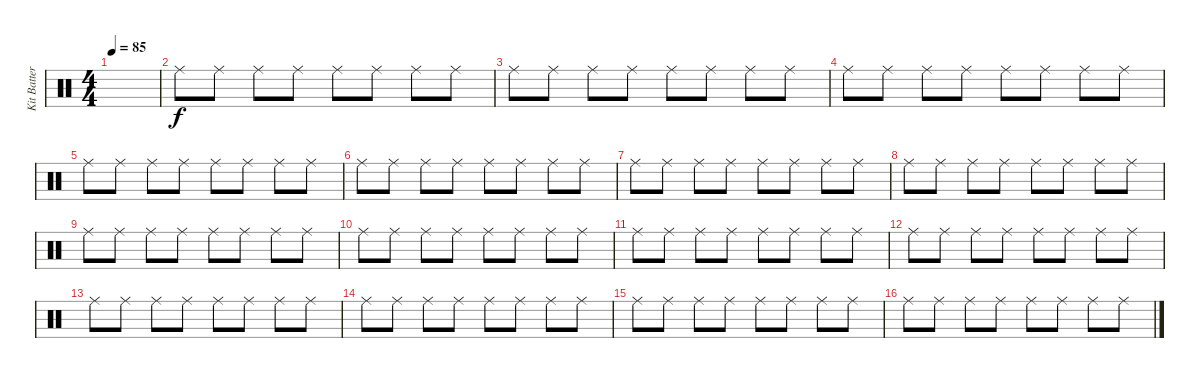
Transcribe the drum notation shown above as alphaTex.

\track ("Kit Batterie 2" "Kit Batter") {instrument percussion}
\staff {score}
\articulation defaults
\ts (4 4)
\tempo 85
\clef neutral
\ks c
|
"Ride (middle)".8{balance 0} "Ride (middle)".8 "Ride (middle)".8 "Ride (middle)".8 "Ride (middle)".8 "Ride (middle)".8 "Ride (middle)".8 "Ride (middle)".8 |
"Ride (middle)".8{balance 0} "Ride (middle)".8 "Ride (middle)".8 "Ride (middle)".8 "Ride (middle)".8 "Ride (middle)".8 "Ride (middle)".8 "Ride (middle)".8 |
"Ride (middle)".8{balance 0} "Ride (middle)".8 "Ride (middle)".8 "Ride (middle)".8 "Ride (middle)".8 "Ride (middle)".8 "Ride (middle)".8 "Ride (middle)".8 |
"Ride (middle)".8{balance 0} "Ride (middle)".8 "Ride (middle)".8 "Ride (middle)".8 "Ride (middle)".8 "Ride (middle)".8 "Ride (middle)".8 "Ride (middle)".8 |
"Ride (middle)".8{balance 0} "Ride (middle)".8 "Ride (middle)".8 "Ride (middle)".8 "Ride (middle)".8 "Ride (middle)".8 "Ride (middle)".8 "Ride (middle)".8 |
"Ride (middle)".8{balance 0} "Ride (middle)".8 "Ride (middle)".8 "Ride (middle)".8 "Ride (middle)".8 "Ride (middle)".8 "Ride (middle)".8 "Ride (middle)".8 |
"Ride (middle)".8{balance 0} "Ride (middle)".8 "Ride (middle)".8 "Ride (middle)".8 "Ride (middle)".8 "Ride (middle)".8 "Ride (middle)".8 "Ride (middle)".8 |
"Ride (middle)".8{balance 0} "Ride (middle)".8 "Ride (middle)".8 "Ride (middle)".8 "Ride (middle)".8 "Ride (middle)".8 "Ride (middle)".8 "Ride (middle)".8 |
"Ride (middle)".8{balance 0} "Ride (middle)".8 "Ride (middle)".8 "Ride (middle)".8 "Ride (middle)".8 "Ride (middle)".8 "Ride (middle)".8 "Ride (middle)".8 |
"Ride (middle)".8{balance 0} "Ride (middle)".8 "Ride (middle)".8 "Ride (middle)".8 "Ride (middle)".8 "Ride (middle)".8 "Ride (middle)".8 "Ride (middle)".8 |
"Ride (middle)".8{balance 0} "Ride (middle)".8 "Ride (middle)".8 "Ride (middle)".8 "Ride (middle)".8 "Ride (middle)".8 "Ride (middle)".8 "Ride (middle)".8 |
"Ride (middle)".8{balance 0} "Ride (middle)".8 "Ride (middle)".8 "Ride (middle)".8 "Ride (middle)".8 "Ride (middle)".8 "Ride (middle)".8 "Ride (middle)".8 |
"Ride (middle)".8{balance 0} "Ride (middle)".8 "Ride (middle)".8 "Ride (middle)".8 "Ride (middle)".8 "Ride (middle)".8 "Ride (middle)".8 "Ride (middle)".8 |
"Ride (middle)".8{balance 0} "Ride (middle)".8 "Ride (middle)".8 "Ride (middle)".8 "Ride (middle)".8 "Ride (middle)".8 "Ride (middle)".8 "Ride (middle)".8 |
"Ride (middle)".8{balance 0} "Ride (middle)".8 "Ride (middle)".8 "Ride (middle)".8 "Ride (middle)".8 "Ride (middle)".8 "Ride (middle)".8 "Ride (middle)".8
